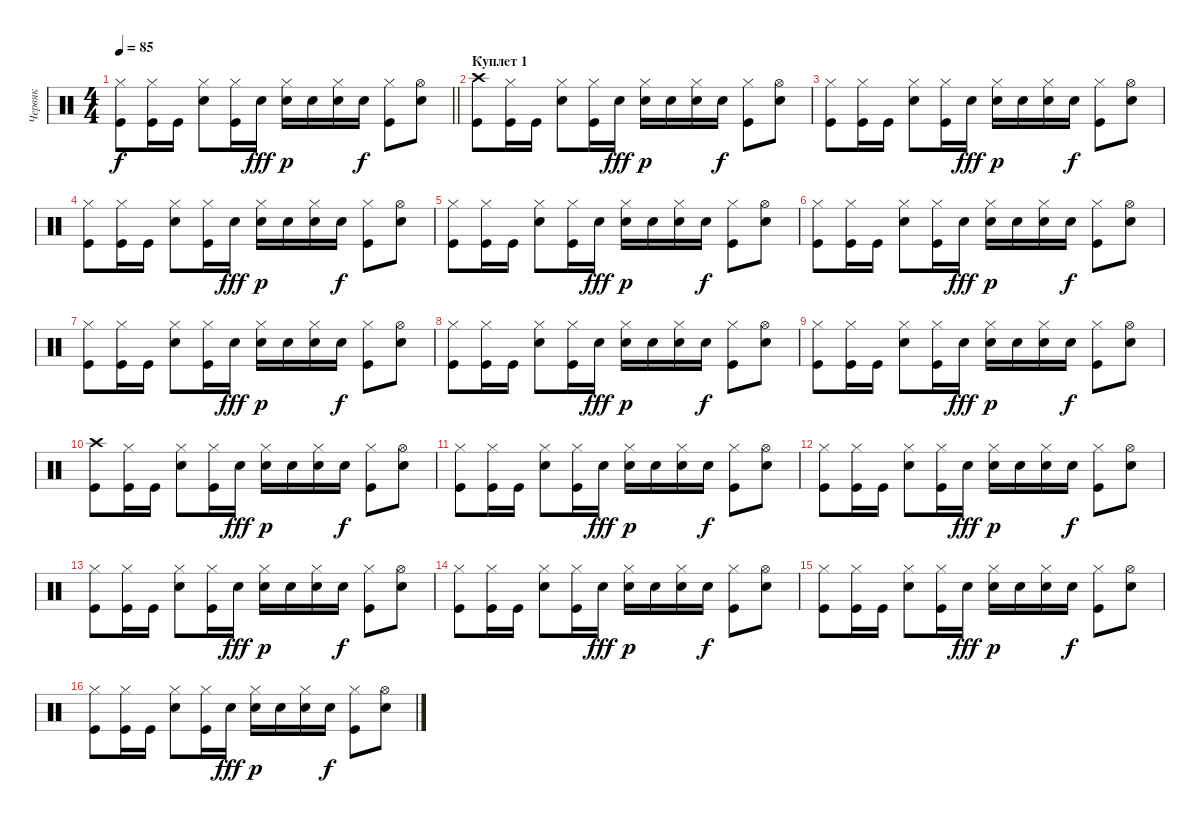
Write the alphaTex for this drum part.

\track ("Червяк" "Червяк") {instrument percussion}
\staff {score}
\articulation defaults
\ts (4 4)
\tempo 85
\clef neutral
\barLineRight lightlight
\ks c
("Hi-Hat (closed)" "Kick (hit)").8{dy f} ("Hi-Hat (closed)" "Kick (hit)").16 "Kick (hit)".16 ("Hi-Hat (closed)" "Electric Snare (hit)").8 ("Hi-Hat (closed)" "Kick (hit)").16 "Snare (hit) 2".16{dy fff} ("Hi-Hat (closed)" "Snare (hit) 2").16{dy p} "Snare (hit) 2".16 ("Hi-Hat (closed)" "Snare (hit) 2").16 "Snare (hit) 2".16{dy f} ("Hi-Hat (closed)" "Kick (hit)").8 ("Hi-Hat (open)" "Electric Snare (hit)").8 |
\section ("" "Куплет 1")
("Crash high (hit)" "Kick (hit)").8 ("Hi-Hat (closed)" "Kick (hit)").16 "Kick (hit)".16 ("Hi-Hat (closed)" "Electric Snare (hit)").8 ("Hi-Hat (closed)" "Kick (hit)").16 "Snare (hit) 2".16{dy fff} ("Hi-Hat (closed)" "Snare (hit) 2").16{dy p} "Snare (hit) 2".16 ("Hi-Hat (closed)" "Snare (hit) 2").16 "Snare (hit) 2".16{dy f} ("Hi-Hat (closed)" "Kick (hit)").8 ("Hi-Hat (open)" "Electric Snare (hit)").8 |
("Hi-Hat (closed)" "Kick (hit)").8 ("Hi-Hat (closed)" "Kick (hit)").16 "Kick (hit)".16 ("Hi-Hat (closed)" "Electric Snare (hit)").8 ("Hi-Hat (closed)" "Kick (hit)").16 "Snare (hit) 2".16{dy fff} ("Hi-Hat (closed)" "Snare (hit) 2").16{dy p} "Snare (hit) 2".16 ("Hi-Hat (closed)" "Snare (hit) 2").16 "Snare (hit) 2".16{dy f} ("Hi-Hat (closed)" "Kick (hit)").8 ("Hi-Hat (open)" "Electric Snare (hit)").8 |
("Hi-Hat (closed)" "Kick (hit)").8 ("Hi-Hat (closed)" "Kick (hit)").16 "Kick (hit)".16 ("Hi-Hat (closed)" "Electric Snare (hit)").8 ("Hi-Hat (closed)" "Kick (hit)").16 "Snare (hit) 2".16{dy fff} ("Hi-Hat (closed)" "Snare (hit) 2").16{dy p} "Snare (hit) 2".16 ("Hi-Hat (closed)" "Snare (hit) 2").16 "Snare (hit) 2".16{dy f} ("Hi-Hat (closed)" "Kick (hit)").8 ("Hi-Hat (open)" "Electric Snare (hit)").8 |
("Hi-Hat (closed)" "Kick (hit)").8 ("Hi-Hat (closed)" "Kick (hit)").16 "Kick (hit)".16 ("Hi-Hat (closed)" "Electric Snare (hit)").8 ("Hi-Hat (closed)" "Kick (hit)").16 "Snare (hit) 2".16{dy fff} ("Hi-Hat (closed)" "Snare (hit) 2").16{dy p} "Snare (hit) 2".16 ("Hi-Hat (closed)" "Snare (hit) 2").16 "Snare (hit) 2".16{dy f} ("Hi-Hat (closed)" "Kick (hit)").8 ("Hi-Hat (open)" "Electric Snare (hit)").8 |
("Hi-Hat (closed)" "Kick (hit)").8 ("Hi-Hat (closed)" "Kick (hit)").16 "Kick (hit)".16 ("Hi-Hat (closed)" "Electric Snare (hit)").8 ("Hi-Hat (closed)" "Kick (hit)").16 "Snare (hit) 2".16{dy fff} ("Hi-Hat (closed)" "Snare (hit) 2").16{dy p} "Snare (hit) 2".16 ("Hi-Hat (closed)" "Snare (hit) 2").16 "Snare (hit) 2".16{dy f} ("Hi-Hat (closed)" "Kick (hit)").8 ("Hi-Hat (open)" "Electric Snare (hit)").8 |
("Hi-Hat (closed)" "Kick (hit)").8 ("Hi-Hat (closed)" "Kick (hit)").16 "Kick (hit)".16 ("Hi-Hat (closed)" "Electric Snare (hit)").8 ("Hi-Hat (closed)" "Kick (hit)").16 "Snare (hit) 2".16{dy fff} ("Hi-Hat (closed)" "Snare (hit) 2").16{dy p} "Snare (hit) 2".16 ("Hi-Hat (closed)" "Snare (hit) 2").16 "Snare (hit) 2".16{dy f} ("Hi-Hat (closed)" "Kick (hit)").8 ("Hi-Hat (open)" "Electric Snare (hit)").8 |
("Hi-Hat (closed)" "Kick (hit)").8 ("Hi-Hat (closed)" "Kick (hit)").16 "Kick (hit)".16 ("Hi-Hat (closed)" "Electric Snare (hit)").8 ("Hi-Hat (closed)" "Kick (hit)").16 "Snare (hit) 2".16{dy fff} ("Hi-Hat (closed)" "Snare (hit) 2").16{dy p} "Snare (hit) 2".16 ("Hi-Hat (closed)" "Snare (hit) 2").16 "Snare (hit) 2".16{dy f} ("Hi-Hat (closed)" "Kick (hit)").8 ("Hi-Hat (open)" "Electric Snare (hit)").8 |
("Hi-Hat (closed)" "Kick (hit)").8 ("Hi-Hat (closed)" "Kick (hit)").16 "Kick (hit)".16 ("Hi-Hat (closed)" "Electric Snare (hit)").8 ("Hi-Hat (closed)" "Kick (hit)").16 "Snare (hit) 2".16{dy fff} ("Hi-Hat (closed)" "Snare (hit) 2").16{dy p} "Snare (hit) 2".16 ("Hi-Hat (closed)" "Snare (hit) 2").16 "Snare (hit) 2".16{dy f} ("Hi-Hat (closed)" "Kick (hit)").8 ("Hi-Hat (open)" "Electric Snare (hit)").8 |
("Crash high (hit)" "Kick (hit)").8 ("Hi-Hat (closed)" "Kick (hit)").16 "Kick (hit)".16 ("Hi-Hat (closed)" "Electric Snare (hit)").8 ("Hi-Hat (closed)" "Kick (hit)").16 "Snare (hit) 2".16{dy fff} ("Hi-Hat (closed)" "Snare (hit) 2").16{dy p} "Snare (hit) 2".16 ("Hi-Hat (closed)" "Snare (hit) 2").16 "Snare (hit) 2".16{dy f} ("Hi-Hat (closed)" "Kick (hit)").8 ("Hi-Hat (open)" "Electric Snare (hit)").8 |
("Hi-Hat (closed)" "Kick (hit)").8 ("Hi-Hat (closed)" "Kick (hit)").16 "Kick (hit)".16 ("Hi-Hat (closed)" "Electric Snare (hit)").8 ("Hi-Hat (closed)" "Kick (hit)").16 "Snare (hit) 2".16{dy fff} ("Hi-Hat (closed)" "Snare (hit) 2").16{dy p} "Snare (hit) 2".16 ("Hi-Hat (closed)" "Snare (hit) 2").16 "Snare (hit) 2".16{dy f} ("Hi-Hat (closed)" "Kick (hit)").8 ("Hi-Hat (open)" "Electric Snare (hit)").8 |
("Hi-Hat (closed)" "Kick (hit)").8 ("Hi-Hat (closed)" "Kick (hit)").16 "Kick (hit)".16 ("Hi-Hat (closed)" "Electric Snare (hit)").8 ("Hi-Hat (closed)" "Kick (hit)").16 "Snare (hit) 2".16{dy fff} ("Hi-Hat (closed)" "Snare (hit) 2").16{dy p} "Snare (hit) 2".16 ("Hi-Hat (closed)" "Snare (hit) 2").16 "Snare (hit) 2".16{dy f} ("Hi-Hat (closed)" "Kick (hit)").8 ("Hi-Hat (open)" "Electric Snare (hit)").8 |
("Hi-Hat (closed)" "Kick (hit)").8 ("Hi-Hat (closed)" "Kick (hit)").16 "Kick (hit)".16 ("Hi-Hat (closed)" "Electric Snare (hit)").8 ("Hi-Hat (closed)" "Kick (hit)").16 "Snare (hit) 2".16{dy fff} ("Hi-Hat (closed)" "Snare (hit) 2").16{dy p} "Snare (hit) 2".16 ("Hi-Hat (closed)" "Snare (hit) 2").16 "Snare (hit) 2".16{dy f} ("Hi-Hat (closed)" "Kick (hit)").8 ("Hi-Hat (open)" "Electric Snare (hit)").8 |
("Hi-Hat (closed)" "Kick (hit)").8 ("Hi-Hat (closed)" "Kick (hit)").16 "Kick (hit)".16 ("Hi-Hat (closed)" "Electric Snare (hit)").8 ("Hi-Hat (closed)" "Kick (hit)").16 "Snare (hit) 2".16{dy fff} ("Hi-Hat (closed)" "Snare (hit) 2").16{dy p} "Snare (hit) 2".16 ("Hi-Hat (closed)" "Snare (hit) 2").16 "Snare (hit) 2".16{dy f} ("Hi-Hat (closed)" "Kick (hit)").8 ("Hi-Hat (open)" "Electric Snare (hit)").8 |
("Hi-Hat (closed)" "Kick (hit)").8 ("Hi-Hat (closed)" "Kick (hit)").16 "Kick (hit)".16 ("Hi-Hat (closed)" "Electric Snare (hit)").8 ("Hi-Hat (closed)" "Kick (hit)").16 "Snare (hit) 2".16{dy fff} ("Hi-Hat (closed)" "Snare (hit) 2").16{dy p} "Snare (hit) 2".16 ("Hi-Hat (closed)" "Snare (hit) 2").16 "Snare (hit) 2".16{dy f} ("Hi-Hat (closed)" "Kick (hit)").8 ("Hi-Hat (open)" "Electric Snare (hit)").8 |
("Hi-Hat (closed)" "Kick (hit)").8 ("Hi-Hat (closed)" "Kick (hit)").16 "Kick (hit)".16 ("Hi-Hat (closed)" "Electric Snare (hit)").8 ("Hi-Hat (closed)" "Kick (hit)").16 "Snare (hit) 2".16{dy fff} ("Hi-Hat (closed)" "Snare (hit) 2").16{dy p} "Snare (hit) 2".16 ("Hi-Hat (closed)" "Snare (hit) 2").16 "Snare (hit) 2".16{dy f} ("Hi-Hat (closed)" "Kick (hit)").8 ("Hi-Hat (open)" "Electric Snare (hit)").8
